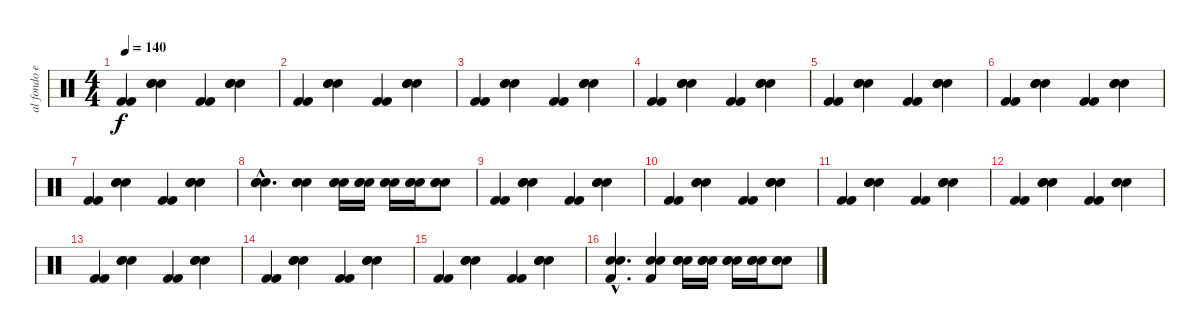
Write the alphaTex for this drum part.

\track ("al fondo en la bateria Mr Pedro Andreu" "al fondo e") {instrument percussion}
\staff {score}
\articulation defaults
\ts (4 4)
\tempo 140
\clef neutral
\ks c
("Kick (hit) 2" "Kick (hit) 2").4{dy f} ("Snare (hit) 2" "Snare (hit) 2" "Snare (hit) 2").4 ("Kick (hit) 2" "Kick (hit) 2").4 ("Snare (hit) 2" "Snare (hit) 2" "Snare (hit) 2").4 |
("Kick (hit) 2" "Kick (hit) 2").4 ("Snare (hit) 2" "Snare (hit) 2" "Snare (hit) 2").4 ("Kick (hit) 2" "Kick (hit) 2").4 ("Snare (hit) 2" "Snare (hit) 2" "Snare (hit) 2").4 |
("Kick (hit) 2" "Kick (hit) 2").4 ("Snare (hit) 2" "Snare (hit) 2" "Snare (hit) 2").4 ("Kick (hit) 2" "Kick (hit) 2").4 ("Snare (hit) 2" "Snare (hit) 2" "Snare (hit) 2").4 |
("Kick (hit) 2" "Kick (hit) 2").4 ("Snare (hit) 2" "Snare (hit) 2" "Snare (hit) 2").4 ("Kick (hit) 2" "Kick (hit) 2").4 ("Snare (hit) 2" "Snare (hit) 2" "Snare (hit) 2").4 |
("Kick (hit) 2" "Kick (hit) 2").4 ("Snare (hit) 2" "Snare (hit) 2" "Snare (hit) 2").4 ("Kick (hit) 2" "Kick (hit) 2").4 ("Snare (hit) 2" "Snare (hit) 2" "Snare (hit) 2").4 |
("Kick (hit) 2" "Kick (hit) 2").4 ("Snare (hit) 2" "Snare (hit) 2" "Snare (hit) 2").4 ("Kick (hit) 2" "Kick (hit) 2").4 ("Snare (hit) 2" "Snare (hit) 2" "Snare (hit) 2").4 |
("Kick (hit) 2" "Kick (hit) 2").4 ("Snare (hit) 2" "Snare (hit) 2" "Snare (hit) 2").4 ("Kick (hit) 2" "Kick (hit) 2").4 ("Snare (hit) 2" "Snare (hit) 2" "Snare (hit) 2").4 |
("Snare (hit) 2"{hac} "Snare (hit) 2"{hac} "Snare (hit) 2"{hac}).4{d} ("Snare (hit) 2" "Snare (hit) 2" "Snare (hit) 2").4 ("Snare (hit) 2" "Snare (hit) 2" "Snare (hit) 2").16 ("Snare (hit) 2" "Snare (hit) 2" "Snare (hit) 2").16 ("Snare (hit) 2" "Snare (hit) 2" "Snare (hit) 2").16 ("Snare (hit) 2" "Snare (hit) 2" "Snare (hit) 2").16 ("Snare (hit) 2" "Snare (hit) 2" "Snare (hit) 2").8 |
("Kick (hit) 2" "Kick (hit) 2").4 ("Snare (hit) 2" "Snare (hit) 2" "Snare (hit) 2").4 ("Kick (hit) 2" "Kick (hit) 2").4 ("Snare (hit) 2" "Snare (hit) 2" "Snare (hit) 2").4 |
("Kick (hit) 2" "Kick (hit) 2").4 ("Snare (hit) 2" "Snare (hit) 2" "Snare (hit) 2").4 ("Kick (hit) 2" "Kick (hit) 2").4 ("Snare (hit) 2" "Snare (hit) 2" "Snare (hit) 2").4 |
("Kick (hit) 2" "Kick (hit) 2").4 ("Snare (hit) 2" "Snare (hit) 2" "Snare (hit) 2").4 ("Kick (hit) 2" "Kick (hit) 2").4 ("Snare (hit) 2" "Snare (hit) 2" "Snare (hit) 2").4 |
("Kick (hit) 2" "Kick (hit) 2").4 ("Snare (hit) 2" "Snare (hit) 2" "Snare (hit) 2").4 ("Kick (hit) 2" "Kick (hit) 2").4 ("Snare (hit) 2" "Snare (hit) 2" "Snare (hit) 2").4 |
("Kick (hit) 2" "Kick (hit) 2").4 ("Snare (hit) 2" "Snare (hit) 2" "Snare (hit) 2").4 ("Kick (hit) 2" "Kick (hit) 2").4 ("Snare (hit) 2" "Snare (hit) 2" "Snare (hit) 2").4 |
("Kick (hit) 2" "Kick (hit) 2").4 ("Snare (hit) 2" "Snare (hit) 2" "Snare (hit) 2").4 ("Kick (hit) 2" "Kick (hit) 2").4 ("Snare (hit) 2" "Snare (hit) 2" "Snare (hit) 2").4 |
("Kick (hit) 2" "Kick (hit) 2").4 ("Snare (hit) 2" "Snare (hit) 2" "Snare (hit) 2").4 ("Kick (hit) 2" "Kick (hit) 2").4 ("Snare (hit) 2" "Snare (hit) 2" "Snare (hit) 2").4 |
("Snare (hit) 2"{hac} "Snare (hit) 2"{hac} "Kick (hit) 2"{hac}).4{d} ("Snare (hit) 2" "Snare (hit) 2" "Kick (hit) 2").4 ("Snare (hit) 2" "Snare (hit) 2" "Snare (hit) 2").16 ("Snare (hit) 2" "Snare (hit) 2" "Snare (hit) 2").16 ("Snare (hit) 2" "Snare (hit) 2" "Snare (hit) 2").16 ("Snare (hit) 2" "Snare (hit) 2" "Snare (hit) 2").16 ("Snare (hit) 2" "Snare (hit) 2" "Snare (hit) 2").8
